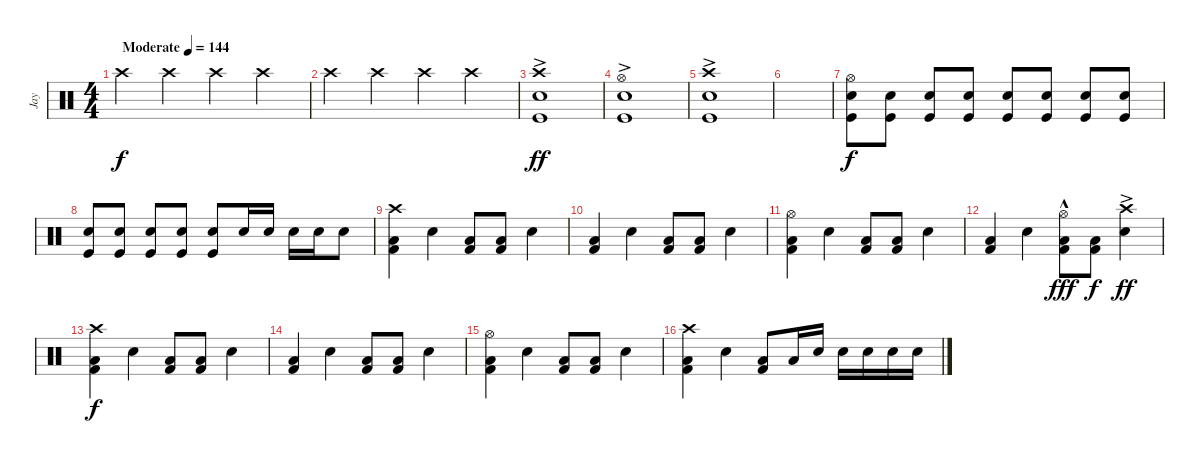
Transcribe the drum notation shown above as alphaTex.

\track ("Jay" "Jay") {instrument percussion}
\staff {score}
\articulation defaults
\ts (4 4)
\tempo (144 "Moderate")
\clef neutral
\ks c "Crash high (hit)".4{dy f} "Crash high (hit)".4 "Crash high (hit)".4 "Crash high (hit)".4
|
"Crash high (hit)".4 "Crash high (hit)".4 "Crash high (hit)".4 "Crash high (hit)".4 |
("Crash high (hit)"{ac} "Electric Snare (hit)" "Kick (hit)").1{dy ff} |
("Hi-Hat (open)"{ac} "Electric Snare (hit)" "Kick (hit)").1 |
("Crash high (hit)"{ac} "Electric Snare (hit)" "Kick (hit)").1 |
|
("Hi-Hat (open)" "Electric Snare (hit)" "Kick (hit)").8{dy f} ("Electric Snare (hit)" "Kick (hit)").8 ("Electric Snare (hit)" "Kick (hit)").8 ("Electric Snare (hit)" "Kick (hit)").8 ("Electric Snare (hit)" "Kick (hit)").8 ("Electric Snare (hit)" "Kick (hit)").8 ("Electric Snare (hit)" "Kick (hit)").8 ("Electric Snare (hit)" "Kick (hit)").8 |
("Electric Snare (hit)" "Kick (hit)").8 ("Electric Snare (hit)" "Kick (hit)").8 ("Electric Snare (hit)" "Kick (hit)").8 ("Electric Snare (hit)" "Kick (hit)").8 ("Electric Snare (hit)" "Kick (hit)").8 "Electric Snare (hit)".16 "Electric Snare (hit)".16 "Electric Snare (hit)".16 "Electric Snare (hit)".16 "Electric Snare (hit)".8 |
("Crash high (hit)" "Low Tom (hit)" "Kick (hit) 2").4 "Electric Snare (hit)".4 ("Low Tom (hit)" "Kick (hit) 2").8 ("Low Tom (hit)" "Kick (hit) 2").8 "Electric Snare (hit)".4 |
("Low Tom (hit)" "Kick (hit) 2").4 "Electric Snare (hit)".4 ("Low Tom (hit)" "Kick (hit) 2").8 ("Low Tom (hit)" "Kick (hit) 2").8 "Electric Snare (hit)".4 |
("Hi-Hat (open)" "Low Tom (hit)" "Kick (hit) 2").4 "Electric Snare (hit)".4 ("Low Tom (hit)" "Kick (hit) 2").8 ("Low Tom (hit)" "Kick (hit) 2").8 "Electric Snare (hit)".4 |
("Low Tom (hit)" "Kick (hit) 2").4 "Electric Snare (hit)".4 ("Hi-Hat (open)"{hac} "Low Tom (hit)" "Kick (hit) 2").8{dy fff} ("Low Tom (hit)" "Kick (hit) 2").8{dy f} ("Crash high (hit)"{ac} "Electric Snare (hit)").4{dy ff} |
("Crash high (hit)" "Low Tom (hit)" "Kick (hit) 2").4{dy f} "Electric Snare (hit)".4 ("Low Tom (hit)" "Kick (hit) 2").8 ("Low Tom (hit)" "Kick (hit) 2").8 "Electric Snare (hit)".4 |
("Low Tom (hit)" "Kick (hit) 2").4 "Electric Snare (hit)".4 ("Low Tom (hit)" "Kick (hit) 2").8 ("Low Tom (hit)" "Kick (hit) 2").8 "Electric Snare (hit)".4 |
("Hi-Hat (open)" "Low Tom (hit)" "Kick (hit) 2").4 "Electric Snare (hit)".4 ("Low Tom (hit)" "Kick (hit) 2").8 ("Low Tom (hit)" "Kick (hit) 2").8 "Electric Snare (hit)".4 |
("Crash high (hit)" "Low Tom (hit)" "Kick (hit) 2").4 "Electric Snare (hit)".4 ("Low Tom (hit)" "Kick (hit) 2").8 "Low Tom (hit)".16 "Electric Snare (hit)".16 "Electric Snare (hit)".16 "Electric Snare (hit)".16 "Electric Snare (hit)".16 "Electric Snare (hit)".16
